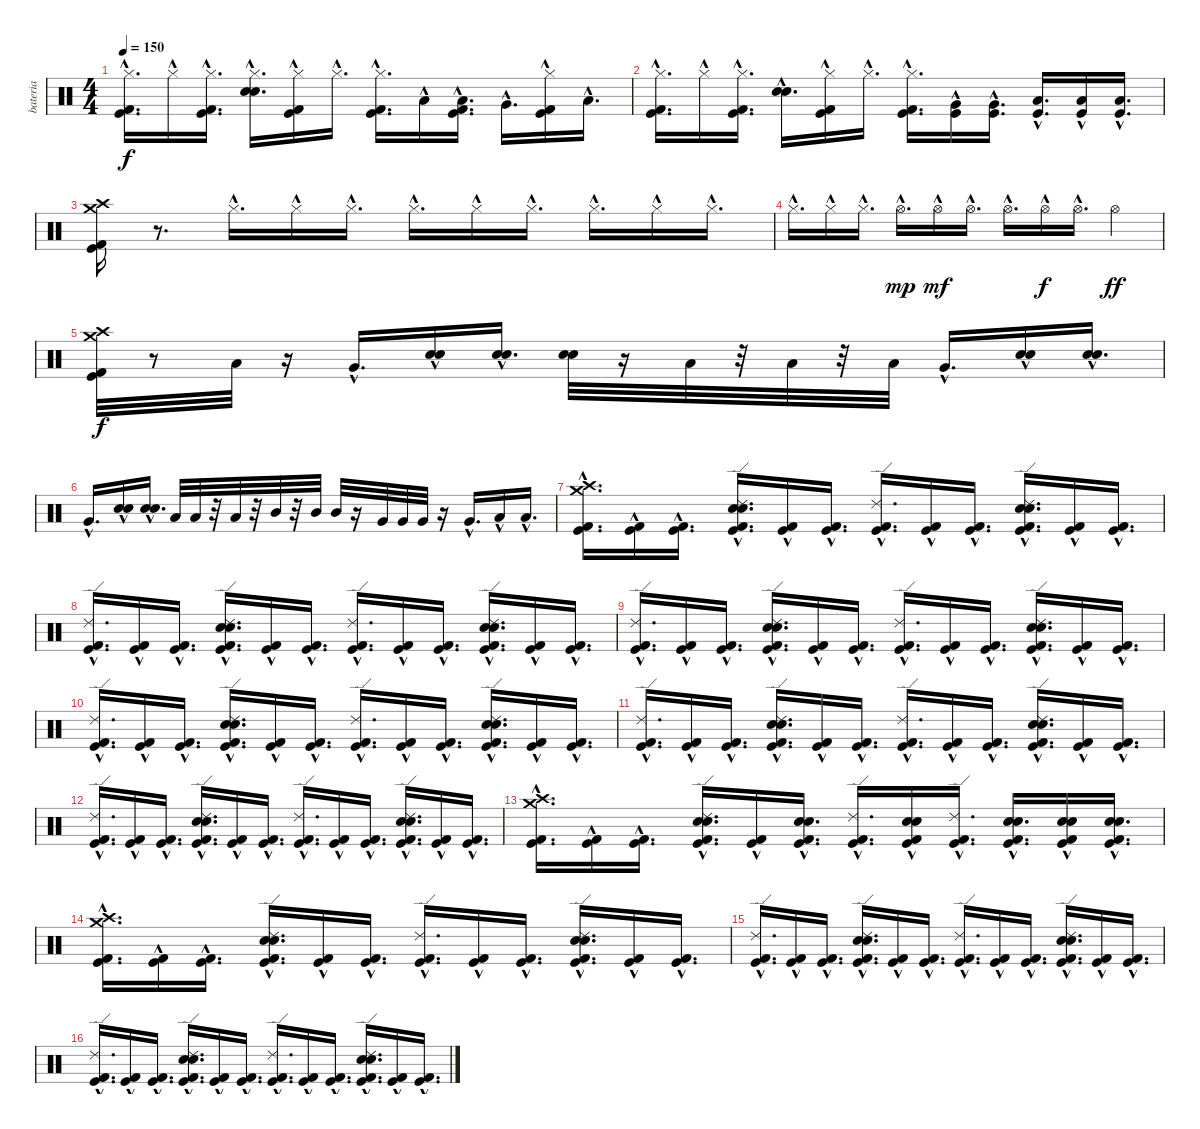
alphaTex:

\track ("bateria" "bateria") {instrument percussion}
\staff {score}
\articulation defaults
\ts (4 4)
\tempo 150
\clef neutral
\ks c
("Kick (hit) 2"{hac} "Kick (hit)"{hac} "Hi-Hat (closed)"{hac}).16{d dy f} "Hi-Hat (closed)"{hac}.16 ("Kick (hit) 2"{hac} "Kick (hit)"{hac} "Hi-Hat (closed)"{hac}).16{d} ("Electric Snare (hit)"{hac} "Snare (hit) 2"{hac} "Hi-Hat (closed)"{hac}).16{d} ("Kick (hit) 2"{hac} "Kick (hit)"{hac} "Hi-Hat (closed)"{hac}).16 "Hi-Hat (closed)"{hac}.16{d} ("Kick (hit) 2"{hac} "Kick (hit)"{hac} "Hi-Hat (closed)"{hac}).16{d} "Low Tom (hit)"{hac}.16 ("Low Tom (hit)"{hac} "Kick (hit) 2"{hac} "Kick (hit)"{hac}).16{d} "Very Low Tom (hit)"{hac}.16{d} ("Kick (hit) 2"{hac} "Kick (hit)"{hac} "Hi-Hat (closed)"{hac}).16 "Low Floor Tom (hit)"{hac}.16{d} |
("Kick (hit) 2"{hac} "Kick (hit)"{hac} "Hi-Hat (closed)"{hac}).16{d} "Hi-Hat (closed)"{hac}.16 ("Kick (hit) 2"{hac} "Kick (hit)"{hac} "Hi-Hat (closed)"{hac}).16{d} ("Electric Snare (hit)"{hac} "Snare (hit) 2"{hac}).16{d} ("Kick (hit) 2"{hac} "Kick (hit)"{hac} "Hi-Hat (closed)"{hac}).16 "Hi-Hat (closed)"{hac}.16{d} ("Kick (hit) 2"{hac} "Kick (hit)"{hac} "Hi-Hat (closed)"{hac}).16{d} ("Kick (hit)"{hac} "Very Low Tom (hit)"{hac}).16 ("Very Low Tom (hit)"{hac} "Kick (hit)"{hac}).16{d} ("Kick (hit)"{hac} "Low Floor Tom (hit)"{hac}).16{d} ("Low Floor Tom (hit)"{hac} "Kick (hit)"{hac}).16 ("Kick (hit)"{hac} "Low Floor Tom (hit)"{hac}).16{d} |
("Crash high (hit)" "Crash medium (hit)" "Kick (hit) 2" "Kick (hit)").16 r.8{d} "Hi-Hat (closed)"{hac}.16{d} "Hi-Hat (closed)"{hac}.16 "Hi-Hat (closed)"{hac}.16{d} "Hi-Hat (closed)"{hac}.16{d} "Hi-Hat (closed)"{hac}.16 "Hi-Hat (closed)"{hac}.16{d} "Hi-Hat (closed)"{hac}.16{d} "Hi-Hat (closed)"{hac}.16 "Hi-Hat (closed)"{hac}.16{d} |
"Hi-Hat (closed)"{hac}.16{d} "Hi-Hat (closed)"{hac}.16 "Hi-Hat (closed)"{hac}.16{d} "Hi-Hat (open)"{hac}.16{d dy mp} "Hi-Hat (open)"{hac}.16{dy mf} "Hi-Hat (open)"{hac}.16{d} "Hi-Hat (open)"{hac}.16{d} "Hi-Hat (open)"{hac}.16{dy f} "Hi-Hat (open)"{hac}.16{d} "Hi-Hat (open)".4{dy ff} |
("Crash high (hit)" "Crash medium (hit)" "Kick (hit) 2" "Kick (hit)").32{dy f} r.8 "Low Tom (hit)".32 r.16 "Very Low Tom (hit)"{hac}.16{d} ("Snare (hit) 2"{hac} "Electric Snare (hit)"{hac}).16 ("Electric Snare (hit)"{hac} "Snare (hit) 2"{hac}).16{d} ("Electric Snare (hit)" "Snare (hit) 2").32 r.16 "Low Tom (hit)".32 r.32 "Low Tom (hit)".32 r.32 "Low Tom (hit)".32 "Very Low Tom (hit)"{hac}.16{d} ("Electric Snare (hit)"{hac} "Snare (hit) 2"{hac}).16 ("Snare (hit) 2"{hac} "Electric Snare (hit)"{hac}).16{d} |
"Very Low Tom (hit)"{hac}.16{d} ("Electric Snare (hit)"{hac} "Snare (hit) 2"{hac}).16 ("Electric Snare (hit)"{hac} "Snare (hit) 2"{hac}).16{d} "Low Tom (hit)".32 "Low Tom (hit)".32 r.32 "Low Tom (hit)".32 r.32 "Mid Tom (hit)".32 r.32 "Mid Tom (hit)".32 "Mid Tom (hit)".32 r.16 "Very Low Tom (hit)".32 "Very Low Tom (hit)".32 "Very Low Tom (hit)".32 r.16 "Very Low Tom (hit)"{hac}.16{d} "Low Floor Tom (hit)"{hac}.16 "Low Floor Tom (hit)"{hac}.16{d} |
("Crash high (hit)"{hac} "Crash medium (hit)"{hac} "Kick (hit) 2"{hac} "Kick (hit)"{hac}).16{d} ("Kick (hit) 2"{hac} "Kick (hit)"{hac}).16 ("Kick (hit) 2"{hac} "Kick (hit)"{hac}).16{d} ("Electric Snare (hit)"{hac} "Snare (hit) 2"{hac} "Ride (edge) 2"{hac} "Kick (hit) 2"{hac} "Kick (hit)"{hac}).16{d} ("Kick (hit) 2"{hac} "Kick (hit)"{hac}).16 ("Kick (hit) 2"{hac} "Kick (hit)"{hac}).16{d} ("Ride (edge) 2"{hac} "Kick (hit) 2"{hac} "Kick (hit)"{hac}).16{d} ("Kick (hit) 2"{hac} "Kick (hit)"{hac}).16 ("Kick (hit) 2"{hac} "Kick (hit)"{hac}).16{d} ("Electric Snare (hit)"{hac} "Snare (hit) 2"{hac} "Ride (edge) 2"{hac} "Kick (hit) 2"{hac} "Kick (hit)"{hac}).16{d} ("Kick (hit) 2"{hac} "Kick (hit)"{hac}).16 ("Kick (hit) 2"{hac} "Kick (hit)"{hac}).16{d} |
("Ride (edge) 2"{hac} "Kick (hit) 2"{hac} "Kick (hit)"{hac}).16{d} ("Kick (hit) 2"{hac} "Kick (hit)"{hac}).16 ("Kick (hit) 2"{hac} "Kick (hit)"{hac}).16{d} ("Electric Snare (hit)"{hac} "Snare (hit) 2"{hac} "Ride (edge) 2"{hac} "Kick (hit) 2"{hac} "Kick (hit)"{hac}).16{d} ("Kick (hit) 2"{hac} "Kick (hit)"{hac}).16 ("Kick (hit) 2"{hac} "Kick (hit)"{hac}).16{d} ("Ride (edge) 2"{hac} "Kick (hit) 2"{hac} "Kick (hit)"{hac}).16{d} ("Kick (hit) 2"{hac} "Kick (hit)"{hac}).16 ("Kick (hit) 2"{hac} "Kick (hit)"{hac}).16{d} ("Electric Snare (hit)"{hac} "Snare (hit) 2"{hac} "Ride (edge) 2"{hac} "Kick (hit) 2"{hac} "Kick (hit)"{hac}).16{d} ("Kick (hit) 2"{hac} "Kick (hit)"{hac}).16 ("Kick (hit) 2"{hac} "Kick (hit)"{hac}).16{d} |
("Ride (edge) 2"{hac} "Kick (hit) 2"{hac} "Kick (hit)"{hac}).16{d} ("Kick (hit) 2"{hac} "Kick (hit)"{hac}).16 ("Kick (hit) 2"{hac} "Kick (hit)"{hac}).16{d} ("Electric Snare (hit)"{hac} "Snare (hit) 2"{hac} "Ride (edge) 2"{hac} "Kick (hit) 2"{hac} "Kick (hit)"{hac}).16{d} ("Kick (hit) 2"{hac} "Kick (hit)"{hac}).16 ("Kick (hit) 2"{hac} "Kick (hit)"{hac}).16{d} ("Ride (edge) 2"{hac} "Kick (hit) 2"{hac} "Kick (hit)"{hac}).16{d} ("Kick (hit) 2"{hac} "Kick (hit)"{hac}).16 ("Kick (hit) 2"{hac} "Kick (hit)"{hac}).16{d} ("Electric Snare (hit)"{hac} "Snare (hit) 2"{hac} "Ride (edge) 2"{hac} "Kick (hit) 2"{hac} "Kick (hit)"{hac}).16{d} ("Kick (hit) 2"{hac} "Kick (hit)"{hac}).16 ("Kick (hit) 2"{hac} "Kick (hit)"{hac}).16{d} |
("Ride (edge) 2"{hac} "Kick (hit) 2"{hac} "Kick (hit)"{hac}).16{d} ("Kick (hit) 2"{hac} "Kick (hit)"{hac}).16 ("Kick (hit) 2"{hac} "Kick (hit)"{hac}).16{d} ("Electric Snare (hit)"{hac} "Snare (hit) 2"{hac} "Ride (edge) 2"{hac} "Kick (hit) 2"{hac} "Kick (hit)"{hac}).16{d} ("Kick (hit) 2"{hac} "Kick (hit)"{hac}).16 ("Kick (hit) 2"{hac} "Kick (hit)"{hac}).16{d} ("Ride (edge) 2"{hac} "Kick (hit) 2"{hac} "Kick (hit)"{hac}).16{d} ("Kick (hit) 2"{hac} "Kick (hit)"{hac}).16 ("Kick (hit) 2"{hac} "Kick (hit)"{hac}).16{d} ("Electric Snare (hit)"{hac} "Snare (hit) 2"{hac} "Ride (edge) 2"{hac} "Kick (hit) 2"{hac} "Kick (hit)"{hac}).16{d} ("Kick (hit) 2"{hac} "Kick (hit)"{hac}).16 ("Kick (hit) 2"{hac} "Kick (hit)"{hac}).16{d} |
("Ride (edge) 2"{hac} "Kick (hit) 2"{hac} "Kick (hit)"{hac}).16{d} ("Kick (hit) 2"{hac} "Kick (hit)"{hac}).16 ("Kick (hit) 2"{hac} "Kick (hit)"{hac}).16{d} ("Electric Snare (hit)"{hac} "Snare (hit) 2"{hac} "Ride (edge) 2"{hac} "Kick (hit) 2"{hac} "Kick (hit)"{hac}).16{d} ("Kick (hit) 2"{hac} "Kick (hit)"{hac}).16 ("Kick (hit) 2"{hac} "Kick (hit)"{hac}).16{d} ("Ride (edge) 2"{hac} "Kick (hit) 2"{hac} "Kick (hit)"{hac}).16{d} ("Kick (hit) 2"{hac} "Kick (hit)"{hac}).16 ("Kick (hit) 2"{hac} "Kick (hit)"{hac}).16{d} ("Electric Snare (hit)"{hac} "Snare (hit) 2"{hac} "Ride (edge) 2"{hac} "Kick (hit) 2"{hac} "Kick (hit)"{hac}).16{d} ("Kick (hit) 2"{hac} "Kick (hit)"{hac}).16 ("Kick (hit) 2"{hac} "Kick (hit)"{hac}).16{d} |
("Ride (edge) 2"{hac} "Kick (hit) 2"{hac} "Kick (hit)"{hac}).16{d} ("Kick (hit) 2"{hac} "Kick (hit)"{hac}).16 ("Kick (hit) 2"{hac} "Kick (hit)"{hac}).16{d} ("Electric Snare (hit)"{hac} "Snare (hit) 2"{hac} "Ride (edge) 2"{hac} "Kick (hit) 2"{hac} "Kick (hit)"{hac}).16{d} ("Kick (hit) 2"{hac} "Kick (hit)"{hac}).16 ("Kick (hit) 2"{hac} "Kick (hit)"{hac}).16{d} ("Ride (edge) 2"{hac} "Kick (hit) 2"{hac} "Kick (hit)"{hac}).16{d} ("Kick (hit) 2"{hac} "Kick (hit)"{hac}).16 ("Kick (hit) 2"{hac} "Kick (hit)"{hac}).16{d} ("Electric Snare (hit)"{hac} "Snare (hit) 2"{hac} "Ride (edge) 2"{hac} "Kick (hit) 2"{hac} "Kick (hit)"{hac}).16{d} ("Kick (hit) 2"{hac} "Kick (hit)"{hac}).16 ("Kick (hit) 2"{hac} "Kick (hit)"{hac}).16{d} |
("Crash high (hit)"{hac} "Crash medium (hit)"{hac} "Kick (hit) 2"{hac} "Kick (hit)"{hac}).16{d} ("Kick (hit) 2"{hac} "Kick (hit)"{hac}).16 ("Kick (hit) 2"{hac} "Kick (hit)"{hac}).16{d} ("Electric Snare (hit)"{hac} "Snare (hit) 2"{hac} "Ride (edge) 2"{hac} "Kick (hit) 2"{hac} "Kick (hit)"{hac}).16{d} ("Kick (hit) 2"{hac} "Kick (hit)"{hac}).16 ("Electric Snare (hit)"{hac} "Snare (hit) 2"{hac} "Kick (hit) 2"{hac} "Kick (hit)"{hac}).16{d} ("Ride (edge) 2"{hac} "Kick (hit) 2"{hac} "Kick (hit)"{hac}).16{d} ("Electric Snare (hit)"{hac} "Snare (hit) 2"{hac} "Kick (hit) 2"{hac} "Kick (hit)"{hac}).16 ("Ride (edge) 2"{hac} "Kick (hit) 2"{hac} "Kick (hit)"{hac}).16{d} ("Electric Snare (hit)"{hac} "Snare (hit) 2"{hac} "Kick (hit) 2"{hac} "Kick (hit)"{hac}).16{d} ("Electric Snare (hit)"{hac} "Snare (hit) 2"{hac} "Kick (hit) 2"{hac} "Kick (hit)"{hac}).16 ("Electric Snare (hit)"{hac} "Snare (hit) 2"{hac} "Kick (hit) 2"{hac} "Kick (hit)"{hac}).16{d} |
("Crash high (hit)"{hac} "Crash medium (hit)"{hac} "Kick (hit) 2"{hac} "Kick (hit)"{hac}).16{d} ("Kick (hit) 2"{hac} "Kick (hit)"{hac}).16 ("Kick (hit) 2"{hac} "Kick (hit)"{hac}).16{d} ("Electric Snare (hit)"{hac} "Snare (hit) 2"{hac} "Ride (edge) 2"{hac} "Kick (hit) 2"{hac} "Kick (hit)"{hac}).16{d} ("Kick (hit) 2"{hac} "Kick (hit)"{hac}).16 ("Kick (hit) 2"{hac} "Kick (hit)"{hac}).16{d} ("Ride (edge) 2"{hac} "Kick (hit) 2"{hac} "Kick (hit)"{hac}).16{d} ("Kick (hit) 2"{hac} "Kick (hit)"{hac}).16 ("Kick (hit) 2"{hac} "Kick (hit)"{hac}).16{d} ("Electric Snare (hit)"{hac} "Snare (hit) 2"{hac} "Ride (edge) 2"{hac} "Kick (hit) 2"{hac} "Kick (hit)"{hac}).16{d} ("Kick (hit) 2"{hac} "Kick (hit)"{hac}).16 ("Kick (hit) 2"{hac} "Kick (hit)"{hac}).16{d} |
("Ride (edge) 2"{hac} "Kick (hit) 2"{hac} "Kick (hit)"{hac}).16{d} ("Kick (hit) 2"{hac} "Kick (hit)"{hac}).16 ("Kick (hit) 2"{hac} "Kick (hit)"{hac}).16{d} ("Electric Snare (hit)"{hac} "Snare (hit) 2"{hac} "Ride (edge) 2"{hac} "Kick (hit) 2"{hac} "Kick (hit)"{hac}).16{d} ("Kick (hit) 2"{hac} "Kick (hit)"{hac}).16 ("Kick (hit) 2"{hac} "Kick (hit)"{hac}).16{d} ("Ride (edge) 2"{hac} "Kick (hit) 2"{hac} "Kick (hit)"{hac}).16{d} ("Kick (hit) 2"{hac} "Kick (hit)"{hac}).16 ("Kick (hit) 2"{hac} "Kick (hit)"{hac}).16{d} ("Electric Snare (hit)"{hac} "Snare (hit) 2"{hac} "Ride (edge) 2"{hac} "Kick (hit) 2"{hac} "Kick (hit)"{hac}).16{d} ("Kick (hit) 2"{hac} "Kick (hit)"{hac}).16 ("Kick (hit) 2"{hac} "Kick (hit)"{hac}).16{d} |
("Ride (edge) 2"{hac} "Kick (hit) 2"{hac} "Kick (hit)"{hac}).16{d} ("Kick (hit) 2"{hac} "Kick (hit)"{hac}).16 ("Kick (hit) 2"{hac} "Kick (hit)"{hac}).16{d} ("Electric Snare (hit)"{hac} "Snare (hit) 2"{hac} "Ride (edge) 2"{hac} "Kick (hit) 2"{hac} "Kick (hit)"{hac}).16{d} ("Kick (hit) 2"{hac} "Kick (hit)"{hac}).16 ("Kick (hit) 2"{hac} "Kick (hit)"{hac}).16{d} ("Ride (edge) 2"{hac} "Kick (hit) 2"{hac} "Kick (hit)"{hac}).16{d} ("Kick (hit) 2"{hac} "Kick (hit)"{hac}).16 ("Kick (hit) 2"{hac} "Kick (hit)"{hac}).16{d} ("Electric Snare (hit)"{hac} "Snare (hit) 2"{hac} "Ride (edge) 2"{hac} "Kick (hit) 2"{hac} "Kick (hit)"{hac}).16{d} ("Kick (hit) 2"{hac} "Kick (hit)"{hac}).16 ("Kick (hit) 2"{hac} "Kick (hit)"{hac}).16{d}
